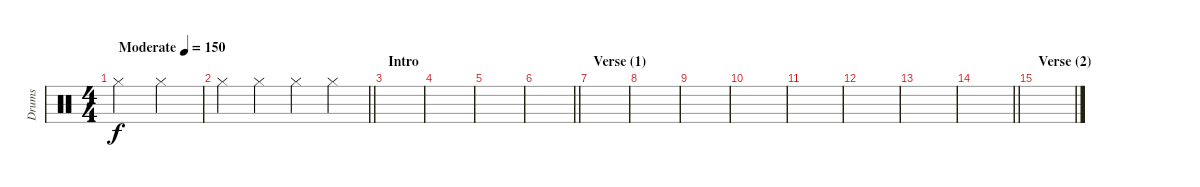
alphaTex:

\track ("Drums" "Drums") {instrument percussion}
\staff {score}
\articulation defaults
\ts (4 4)
\tempo (150 "Moderate")
\clef neutral
\ks c "Hi-Hat (closed)".2{dy f} "Hi-Hat (closed)".2
|
\barLineRight lightlight "Hi-Hat (closed)".4 "Hi-Hat (closed)".4 "Hi-Hat (closed)".4 "Hi-Hat (closed)".4
|
\section ("" "Intro")
|
|
|
\barLineRight lightlight
|
\section ("" "Verse (1)")
|
|
|
|
|
|
|
\barLineRight lightlight
|
\section ("" "Verse (2)")
